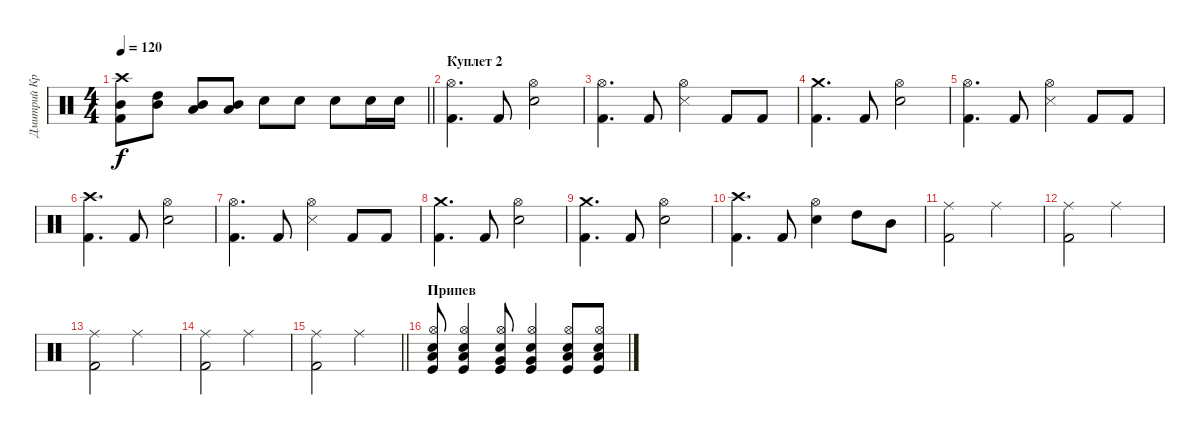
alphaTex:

\track ("Дмитрий Кривенков       (Ударные)" "Дмитрий Кр") {instrument percussion}
\staff {score}
\articulation defaults
\ts (4 4)
\tempo 120
\clef neutral
\barLineRight lightlight
\ks c
("Crash high (hit)" "Mid Tom (hit)" "Kick (hit) 2").8{dy f} ("High Tom (hit)" "Mid Tom (hit)").8 ("Mid Tom (hit)" "Low Tom (hit)").8 ("Mid Tom (hit)" "Low Tom (hit)").8 "Electric Snare (hit)".8 "Electric Snare (hit)".8 "Electric Snare (hit)".8 "Electric Snare (hit)".16 "Electric Snare (hit)".16 |
\section ("" "Куплет 2")
("Hi-Hat (open)" "Kick (hit) 2").4{d} "Kick (hit) 2".8 ("Hi-Hat (open)" "Electric Snare (hit)").2 |
("Hi-Hat (open)" "Kick (hit) 2").4{d} "Kick (hit) 2".8 ("Snare (side stick) 3" "Hi-Hat (open)").4 "Kick (hit) 2".8 "Kick (hit) 2".8 |
("Crash medium (hit)" "Kick (hit) 2").4{d} "Kick (hit) 2".8 ("Hi-Hat (open)" "Electric Snare (hit)").2 |
("Hi-Hat (open)" "Kick (hit) 2").4{d} "Kick (hit) 2".8 ("Snare (side stick) 3" "Hi-Hat (open)").4 "Kick (hit) 2".8 "Kick (hit) 2".8 |
("Crash high (hit)" "Kick (hit) 2").4{d} "Kick (hit) 2".8 ("Hi-Hat (open)" "Electric Snare (hit)").2 |
("Hi-Hat (open)" "Kick (hit) 2").4{d} "Kick (hit) 2".8 ("Snare (side stick) 3" "Hi-Hat (open)").4 "Kick (hit) 2".8 "Kick (hit) 2".8 |
("Crash medium (hit)" "Kick (hit) 2").4{d} "Kick (hit) 2".8 ("Hi-Hat (open)" "Electric Snare (hit)").2 |
("Crash medium (hit)" "Kick (hit) 2").4{d} "Kick (hit) 2".8 ("Hi-Hat (open)" "Electric Snare (hit)").2 |
("Crash high (hit)" "Kick (hit) 2").4{d} "Kick (hit) 2".8 ("Hi-Hat (open)" "Electric Snare (hit)").4 "High Tom (hit)".8 "Mid Tom (hit)".8 |
("Ride (middle)" "Kick (hit) 2").2 "Ride (middle)".2 |
("Ride (middle)" "Kick (hit) 2").2 "Ride (middle)".2 |
("Ride (middle)" "Kick (hit) 2").2 "Ride (middle)".2 |
("Ride (middle)" "Kick (hit) 2").2 "Ride (middle)".2 |
\barLineRight lightlight
("Ride (middle)" "Kick (hit) 2").2 "Ride (middle)".2 |
\section ("" "Припев")
("Kick (hit)" "Electric Snare (hit)" "Low Tom (hit)" "Hi-Hat (open)").8 ("Kick (hit)" "Electric Snare (hit)" "Low Tom (hit)" "Hi-Hat (open)").4 ("Hi-Hat (open)" "Electric Snare (hit)" "Very Low Tom (hit)" "Kick (hit)").8 ("Hi-Hat (open)" "Electric Snare (hit)" "Very Low Tom (hit)" "Kick (hit)").4 ("Hi-Hat (open)" "Electric Snare (hit)" "Low Tom (hit)" "Kick (hit)").8 ("Hi-Hat (open)" "Electric Snare (hit)" "Low Tom (hit)" "Kick (hit)").8
